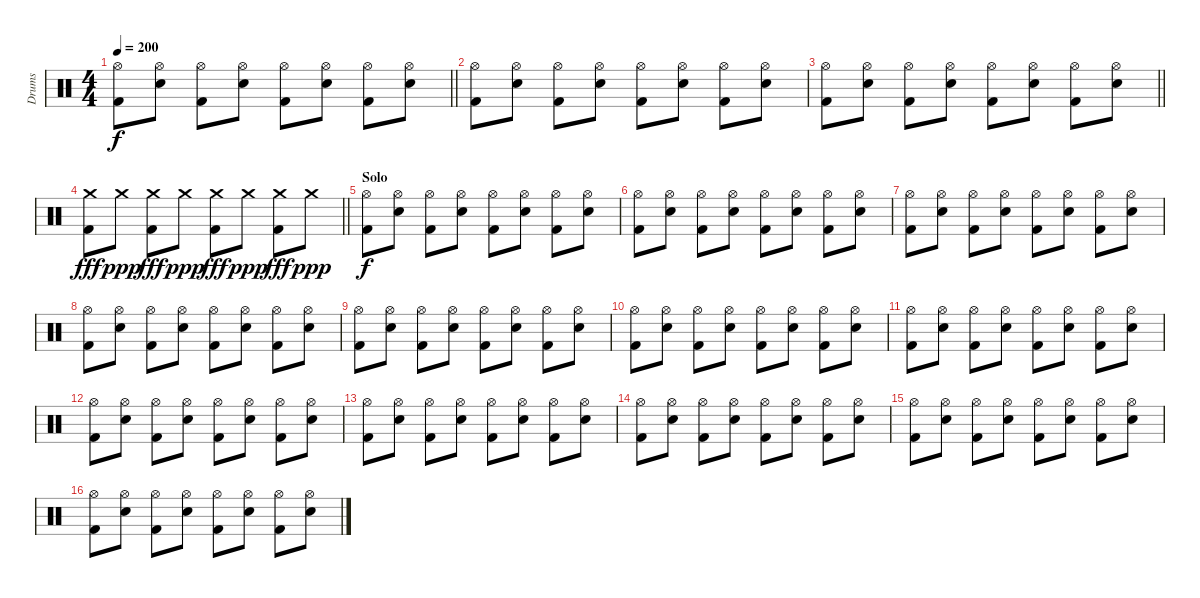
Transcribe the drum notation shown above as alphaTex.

\track ("Drums" "Drums") {instrument percussion}
\staff {score}
\articulation defaults
\ts (4 4)
\tempo 200
\clef neutral
\barLineRight lightlight
\ks c
("Hi-Hat (open)" "Kick (hit) 2").8{dy f} ("Hi-Hat (open)" "Electric Snare (hit)").8 ("Hi-Hat (open)" "Kick (hit) 2").8 ("Hi-Hat (open)" "Electric Snare (hit)").8 ("Hi-Hat (open)" "Kick (hit) 2").8 ("Hi-Hat (open)" "Electric Snare (hit)").8 ("Hi-Hat (open)" "Kick (hit) 2").8 ("Hi-Hat (open)" "Electric Snare (hit)").8 |
("Hi-Hat (open)" "Kick (hit) 2").8 ("Hi-Hat (open)" "Electric Snare (hit)").8 ("Hi-Hat (open)" "Kick (hit) 2").8 ("Hi-Hat (open)" "Electric Snare (hit)").8 ("Hi-Hat (open)" "Kick (hit) 2").8 ("Hi-Hat (open)" "Electric Snare (hit)").8 ("Hi-Hat (open)" "Kick (hit) 2").8 ("Hi-Hat (open)" "Electric Snare (hit)").8 |
\barLineRight lightlight
("Hi-Hat (open)" "Kick (hit) 2").8 ("Hi-Hat (open)" "Electric Snare (hit)").8 ("Hi-Hat (open)" "Kick (hit) 2").8 ("Hi-Hat (open)" "Electric Snare (hit)").8 ("Hi-Hat (open)" "Kick (hit) 2").8 ("Hi-Hat (open)" "Electric Snare (hit)").8 ("Hi-Hat (open)" "Kick (hit) 2").8 ("Hi-Hat (open)" "Electric Snare (hit)").8 |
\barLineRight lightlight
("Crash medium (hit)" "Kick (hit) 2").8{dy fff} "Crash medium (hit)".8{dy ppp} ("Crash medium (hit)" "Kick (hit) 2").8{dy fff} "Crash medium (hit)".8{dy ppp} ("Crash medium (hit)" "Kick (hit) 2").8{dy fff} "Crash medium (hit)".8{dy ppp} ("Crash medium (hit)" "Kick (hit) 2").8{dy fff} "Crash medium (hit)".8{dy ppp} |
\section ("" "Solo")
("Hi-Hat (open)" "Kick (hit) 2").8{dy f} ("Hi-Hat (open)" "Electric Snare (hit)").8 ("Hi-Hat (open)" "Kick (hit) 2").8 ("Hi-Hat (open)" "Electric Snare (hit)").8 ("Hi-Hat (open)" "Kick (hit) 2").8 ("Hi-Hat (open)" "Electric Snare (hit)").8 ("Hi-Hat (open)" "Kick (hit) 2").8 ("Hi-Hat (open)" "Electric Snare (hit)").8 |
("Hi-Hat (open)" "Kick (hit) 2").8 ("Hi-Hat (open)" "Electric Snare (hit)").8 ("Hi-Hat (open)" "Kick (hit) 2").8 ("Hi-Hat (open)" "Electric Snare (hit)").8 ("Hi-Hat (open)" "Kick (hit) 2").8 ("Hi-Hat (open)" "Electric Snare (hit)").8 ("Hi-Hat (open)" "Kick (hit) 2").8 ("Hi-Hat (open)" "Electric Snare (hit)").8 |
("Hi-Hat (open)" "Kick (hit) 2").8 ("Hi-Hat (open)" "Electric Snare (hit)").8 ("Hi-Hat (open)" "Kick (hit) 2").8 ("Hi-Hat (open)" "Electric Snare (hit)").8 ("Hi-Hat (open)" "Kick (hit) 2").8 ("Hi-Hat (open)" "Electric Snare (hit)").8 ("Hi-Hat (open)" "Kick (hit) 2").8 ("Hi-Hat (open)" "Electric Snare (hit)").8 |
("Hi-Hat (open)" "Kick (hit) 2").8 ("Hi-Hat (open)" "Electric Snare (hit)").8 ("Hi-Hat (open)" "Kick (hit) 2").8 ("Hi-Hat (open)" "Electric Snare (hit)").8 ("Hi-Hat (open)" "Kick (hit) 2").8 ("Hi-Hat (open)" "Electric Snare (hit)").8 ("Hi-Hat (open)" "Kick (hit) 2").8 ("Hi-Hat (open)" "Electric Snare (hit)").8 |
("Hi-Hat (open)" "Kick (hit) 2").8 ("Hi-Hat (open)" "Electric Snare (hit)").8 ("Hi-Hat (open)" "Kick (hit) 2").8 ("Hi-Hat (open)" "Electric Snare (hit)").8 ("Hi-Hat (open)" "Kick (hit) 2").8 ("Hi-Hat (open)" "Electric Snare (hit)").8 ("Hi-Hat (open)" "Kick (hit) 2").8 ("Hi-Hat (open)" "Electric Snare (hit)").8 |
("Hi-Hat (open)" "Kick (hit) 2").8 ("Hi-Hat (open)" "Electric Snare (hit)").8 ("Hi-Hat (open)" "Kick (hit) 2").8 ("Hi-Hat (open)" "Electric Snare (hit)").8 ("Hi-Hat (open)" "Kick (hit) 2").8 ("Hi-Hat (open)" "Electric Snare (hit)").8 ("Hi-Hat (open)" "Kick (hit) 2").8 ("Hi-Hat (open)" "Electric Snare (hit)").8 |
("Hi-Hat (open)" "Kick (hit) 2").8 ("Hi-Hat (open)" "Electric Snare (hit)").8 ("Hi-Hat (open)" "Kick (hit) 2").8 ("Hi-Hat (open)" "Electric Snare (hit)").8 ("Hi-Hat (open)" "Kick (hit) 2").8 ("Hi-Hat (open)" "Electric Snare (hit)").8 ("Hi-Hat (open)" "Kick (hit) 2").8 ("Hi-Hat (open)" "Electric Snare (hit)").8 |
("Hi-Hat (open)" "Kick (hit) 2").8 ("Hi-Hat (open)" "Electric Snare (hit)").8 ("Hi-Hat (open)" "Kick (hit) 2").8 ("Hi-Hat (open)" "Electric Snare (hit)").8 ("Hi-Hat (open)" "Kick (hit) 2").8 ("Hi-Hat (open)" "Electric Snare (hit)").8 ("Hi-Hat (open)" "Kick (hit) 2").8 ("Hi-Hat (open)" "Electric Snare (hit)").8 |
("Hi-Hat (open)" "Kick (hit) 2").8 ("Hi-Hat (open)" "Electric Snare (hit)").8 ("Hi-Hat (open)" "Kick (hit) 2").8 ("Hi-Hat (open)" "Electric Snare (hit)").8 ("Hi-Hat (open)" "Kick (hit) 2").8 ("Hi-Hat (open)" "Electric Snare (hit)").8 ("Hi-Hat (open)" "Kick (hit) 2").8 ("Hi-Hat (open)" "Electric Snare (hit)").8 |
("Hi-Hat (open)" "Kick (hit) 2").8 ("Hi-Hat (open)" "Electric Snare (hit)").8 ("Hi-Hat (open)" "Kick (hit) 2").8 ("Hi-Hat (open)" "Electric Snare (hit)").8 ("Hi-Hat (open)" "Kick (hit) 2").8 ("Hi-Hat (open)" "Electric Snare (hit)").8 ("Hi-Hat (open)" "Kick (hit) 2").8 ("Hi-Hat (open)" "Electric Snare (hit)").8 |
("Hi-Hat (open)" "Kick (hit) 2").8 ("Hi-Hat (open)" "Electric Snare (hit)").8 ("Hi-Hat (open)" "Kick (hit) 2").8 ("Hi-Hat (open)" "Electric Snare (hit)").8 ("Hi-Hat (open)" "Kick (hit) 2").8 ("Hi-Hat (open)" "Electric Snare (hit)").8 ("Hi-Hat (open)" "Kick (hit) 2").8 ("Hi-Hat (open)" "Electric Snare (hit)").8 |
("Hi-Hat (open)" "Kick (hit) 2").8 ("Hi-Hat (open)" "Electric Snare (hit)").8 ("Hi-Hat (open)" "Kick (hit) 2").8 ("Hi-Hat (open)" "Electric Snare (hit)").8 ("Hi-Hat (open)" "Kick (hit) 2").8 ("Hi-Hat (open)" "Electric Snare (hit)").8 ("Hi-Hat (open)" "Kick (hit) 2").8 ("Hi-Hat (open)" "Electric Snare (hit)").8
